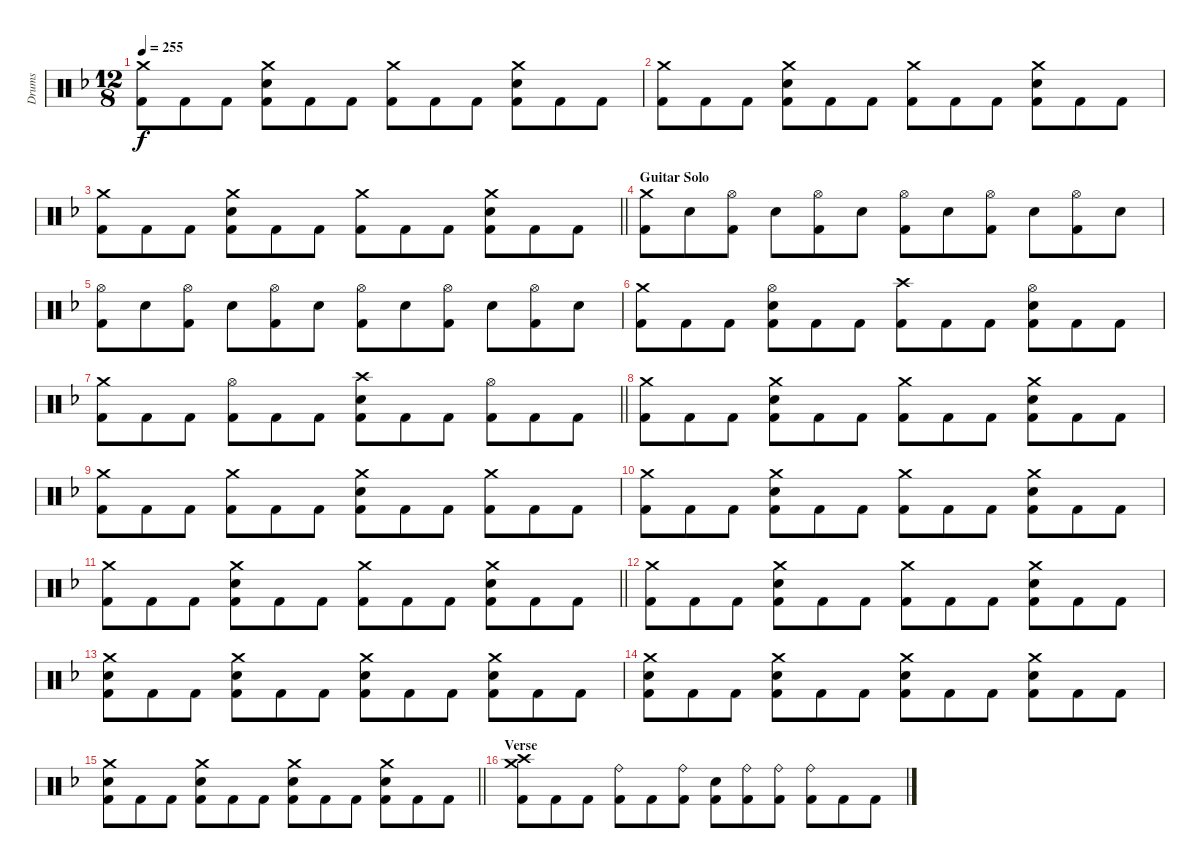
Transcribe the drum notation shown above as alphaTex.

\track ("Drums" "Drums") {instrument percussion}
\staff {score}
\articulation defaults
\ts (12 8)
\tempo 255
\clef neutral
\ks dminor
("Crash medium (hit)" "Kick (hit) 2").8{dy f} "Kick (hit) 2".8 "Kick (hit) 2".8 ("Crash medium (hit)" "Electric Snare (hit)" "Kick (hit) 2").8 "Kick (hit) 2".8 "Kick (hit) 2".8 ("Crash medium (hit)" "Kick (hit) 2").8 "Kick (hit) 2".8 "Kick (hit) 2".8 ("Crash medium (hit)" "Electric Snare (hit)" "Kick (hit) 2").8 "Kick (hit) 2".8 "Kick (hit) 2".8 |
("Crash medium (hit)" "Kick (hit) 2").8 "Kick (hit) 2".8 "Kick (hit) 2".8 ("Crash medium (hit)" "Electric Snare (hit)" "Kick (hit) 2").8 "Kick (hit) 2".8 "Kick (hit) 2".8 ("Crash medium (hit)" "Kick (hit) 2").8 "Kick (hit) 2".8 "Kick (hit) 2".8 ("Crash medium (hit)" "Electric Snare (hit)" "Kick (hit) 2").8 "Kick (hit) 2".8 "Kick (hit) 2".8 |
\barLineRight lightlight
("Crash medium (hit)" "Kick (hit) 2").8 "Kick (hit) 2".8 "Kick (hit) 2".8 ("Crash medium (hit)" "Electric Snare (hit)" "Kick (hit) 2").8 "Kick (hit) 2".8 "Kick (hit) 2".8 ("Crash medium (hit)" "Kick (hit) 2").8 "Kick (hit) 2".8 "Kick (hit) 2".8 ("Crash medium (hit)" "Electric Snare (hit)" "Kick (hit) 2").8 "Kick (hit) 2".8 "Kick (hit) 2".8 |
\section ("" "Guitar Solo")
("Crash medium (hit)" "Kick (hit) 2").8 "Electric Snare (hit)".8 ("Hi-Hat (open)" "Kick (hit) 2").8 "Electric Snare (hit)".8 ("Hi-Hat (open)" "Kick (hit) 2").8 "Electric Snare (hit)".8 ("Hi-Hat (open)" "Kick (hit) 2").8 "Electric Snare (hit)".8 ("Hi-Hat (open)" "Kick (hit) 2").8 "Electric Snare (hit)".8 ("Hi-Hat (open)" "Kick (hit) 2").8 "Electric Snare (hit)".8 |
("Hi-Hat (open)" "Kick (hit) 2").8 "Electric Snare (hit)".8 ("Hi-Hat (open)" "Kick (hit) 2").8 "Electric Snare (hit)".8 ("Hi-Hat (open)" "Kick (hit) 2").8 "Electric Snare (hit)".8 ("Hi-Hat (open)" "Kick (hit) 2").8 "Electric Snare (hit)".8 ("Hi-Hat (open)" "Kick (hit) 2").8 "Electric Snare (hit)".8 ("Hi-Hat (open)" "Kick (hit) 2").8 "Electric Snare (hit)".8 |
("Crash medium (hit)" "Kick (hit) 2").8 "Kick (hit) 2".8 "Kick (hit) 2".8 ("Hi-Hat (open)" "Electric Snare (hit)" "Kick (hit) 2").8 "Kick (hit) 2".8 "Kick (hit) 2".8 ("Crash high (hit)" "Kick (hit) 2").8 "Kick (hit) 2".8 "Kick (hit) 2".8 ("Hi-Hat (open)" "Electric Snare (hit)" "Kick (hit) 2").8 "Kick (hit) 2".8 "Kick (hit) 2".8 |
\barLineRight lightlight
("Crash medium (hit)" "Kick (hit) 2").8 "Kick (hit) 2".8 "Kick (hit) 2".8 ("Hi-Hat (open)" "Kick (hit) 2").8 "Kick (hit) 2".8 "Kick (hit) 2".8 ("Crash high (hit)" "Electric Snare (hit)" "Kick (hit) 2").8 "Kick (hit) 2".8 "Kick (hit) 2".8 ("Hi-Hat (open)" "Kick (hit) 2").8 "Kick (hit) 2".8 "Kick (hit) 2".8 |
("Crash medium (hit)" "Kick (hit) 2").8 "Kick (hit) 2".8 "Kick (hit) 2".8 ("Crash medium (hit)" "Electric Snare (hit)" "Kick (hit) 2").8 "Kick (hit) 2".8 "Kick (hit) 2".8 ("Crash medium (hit)" "Kick (hit) 2").8 "Kick (hit) 2".8 "Kick (hit) 2".8 ("Crash medium (hit)" "Electric Snare (hit)" "Kick (hit) 2").8 "Kick (hit) 2".8 "Kick (hit) 2".8 |
("Crash medium (hit)" "Kick (hit) 2").8 "Kick (hit) 2".8 "Kick (hit) 2".8 ("Crash medium (hit)" "Kick (hit) 2").8 "Kick (hit) 2".8 "Kick (hit) 2".8 ("Crash medium (hit)" "Electric Snare (hit)" "Kick (hit) 2").8 "Kick (hit) 2".8 "Kick (hit) 2".8 ("Crash medium (hit)" "Kick (hit) 2").8 "Kick (hit) 2".8 "Kick (hit) 2".8 |
("Crash medium (hit)" "Kick (hit) 2").8 "Kick (hit) 2".8 "Kick (hit) 2".8 ("Crash medium (hit)" "Electric Snare (hit)" "Kick (hit) 2").8 "Kick (hit) 2".8 "Kick (hit) 2".8 ("Crash medium (hit)" "Kick (hit) 2").8 "Kick (hit) 2".8 "Kick (hit) 2".8 ("Crash medium (hit)" "Electric Snare (hit)" "Kick (hit) 2").8 "Kick (hit) 2".8 "Kick (hit) 2".8 |
\barLineRight lightlight
("Crash medium (hit)" "Kick (hit) 2").8 "Kick (hit) 2".8 "Kick (hit) 2".8 ("Crash medium (hit)" "Electric Snare (hit)" "Kick (hit) 2").8 "Kick (hit) 2".8 "Kick (hit) 2".8 ("Crash medium (hit)" "Kick (hit) 2").8 "Kick (hit) 2".8 "Kick (hit) 2".8 ("Crash medium (hit)" "Electric Snare (hit)" "Kick (hit) 2").8 "Kick (hit) 2".8 "Kick (hit) 2".8 |
("Crash medium (hit)" "Kick (hit) 2").8 "Kick (hit) 2".8 "Kick (hit) 2".8 ("Crash medium (hit)" "Electric Snare (hit)" "Kick (hit) 2").8 "Kick (hit) 2".8 "Kick (hit) 2".8 ("Crash medium (hit)" "Kick (hit) 2").8 "Kick (hit) 2".8 "Kick (hit) 2".8 ("Crash medium (hit)" "Electric Snare (hit)" "Kick (hit) 2").8 "Kick (hit) 2".8 "Kick (hit) 2".8 |
("Crash medium (hit)" "Electric Snare (hit)" "Kick (hit) 2").8 "Kick (hit) 2".8 "Kick (hit) 2".8 ("Crash medium (hit)" "Electric Snare (hit)" "Kick (hit) 2").8 "Kick (hit) 2".8 "Kick (hit) 2".8 ("Crash medium (hit)" "Electric Snare (hit)" "Kick (hit) 2").8 "Kick (hit) 2".8 "Kick (hit) 2".8 ("Crash medium (hit)" "Electric Snare (hit)" "Kick (hit) 2").8 "Kick (hit) 2".8 "Kick (hit) 2".8 |
("Crash medium (hit)" "Electric Snare (hit)" "Kick (hit) 2").8 "Kick (hit) 2".8 "Kick (hit) 2".8 ("Crash medium (hit)" "Electric Snare (hit)" "Kick (hit) 2").8 "Kick (hit) 2".8 "Kick (hit) 2".8 ("Crash medium (hit)" "Electric Snare (hit)" "Kick (hit) 2").8 "Kick (hit) 2".8 "Kick (hit) 2".8 ("Crash medium (hit)" "Electric Snare (hit)" "Kick (hit) 2").8 "Kick (hit) 2".8 "Kick (hit) 2".8 |
\barLineRight lightlight
("Crash medium (hit)" "Electric Snare (hit)" "Kick (hit) 2").8 "Kick (hit) 2".8 "Kick (hit) 2".8 ("Crash medium (hit)" "Electric Snare (hit)" "Kick (hit) 2").8 "Kick (hit) 2".8 "Kick (hit) 2".8 ("Crash medium (hit)" "Electric Snare (hit)" "Kick (hit) 2").8 "Kick (hit) 2".8 "Kick (hit) 2".8 ("Crash medium (hit)" "Electric Snare (hit)" "Kick (hit) 2").8 "Kick (hit) 2".8 "Kick (hit) 2".8 |
\section ("" "Verse")
("Crash medium (hit)" "Crash high (hit)" "Kick (hit) 2").8 "Kick (hit) 2".8 "Kick (hit) 2".8 ("Ride (bell)" "Kick (hit) 2").8 "Kick (hit) 2".8 ("Ride (bell)" "Kick (hit) 2").8 ("Electric Snare (hit)" "Kick (hit) 2").8 ("Ride (bell)" "Kick (hit) 2").8 ("Ride (bell)" "Kick (hit) 2").8 ("Ride (bell)" "Kick (hit) 2").8 "Kick (hit) 2".8 "Kick (hit) 2".8
